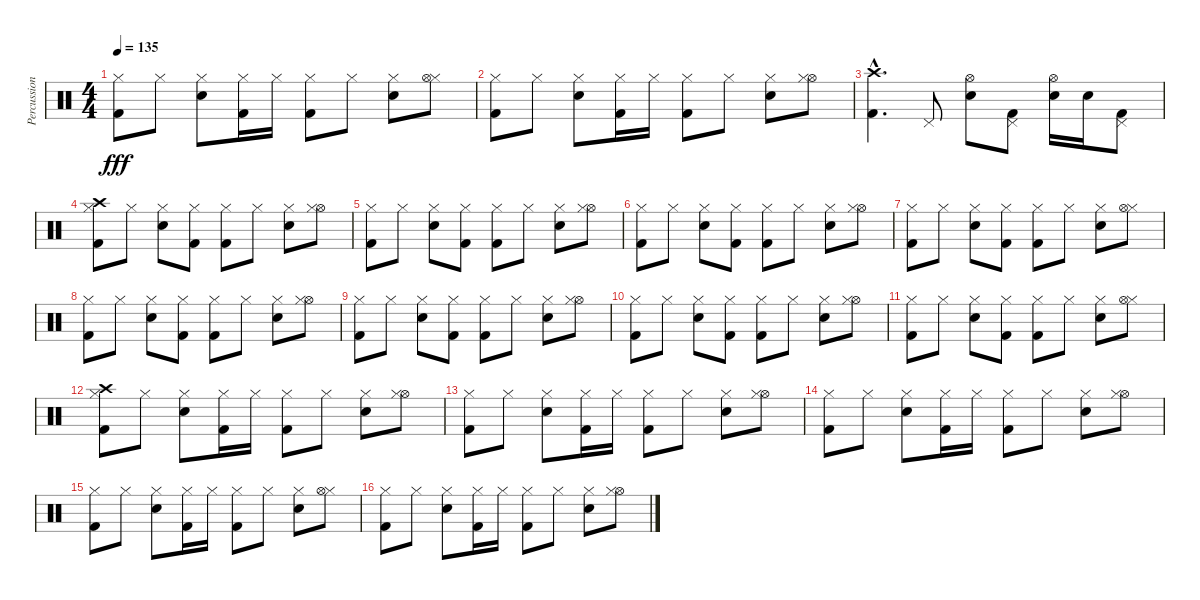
\track ("Percussion" "Percussion") {instrument percussion}
\staff {score}
\articulation defaults
\ts (4 4)
\tempo 135
\clef neutral
\ks c
("Hi-Hat (closed)" "Kick (hit) 2").8{dy fff} "Hi-Hat (closed)".8 ("Hi-Hat (closed)" "Snare (hit) 2").8 ("Kick (hit) 2" "Hi-Hat (closed)").16 "Hi-Hat (closed)".16 ("Hi-Hat (closed)" "Kick (hit) 2").8 "Hi-Hat (closed)".8 ("Snare (hit) 2" "Hi-Hat (closed)").8 ("Hi-Hat (closed)" "Hi-Hat (open)").8 |
("Hi-Hat (closed)" "Kick (hit) 2").8 "Hi-Hat (closed)".8 ("Hi-Hat (closed)" "Snare (hit) 2").8 ("Hi-Hat (closed)" "Kick (hit) 2").16 "Hi-Hat (closed)".16 ("Hi-Hat (closed)" "Kick (hit) 2").8 "Hi-Hat (closed)".8 ("Snare (hit) 2" "Hi-Hat (closed)").8 ("Hi-Hat (open)" "Hi-Hat (closed)").8 |
("Crash high (hit)"{hac} "Kick (hit) 2"{hac}).4{d} "Pedal Hi-Hat (hit)".8 ("Snare (hit) 2" "Hi-Hat (open)").8 ("Kick (hit) 2" "Pedal Hi-Hat (hit)").8 ("Hi-Hat (open)" "Snare (hit) 2").16 "Snare (hit) 2".16 ("Kick (hit) 2" "Pedal Hi-Hat (hit)").8 |
("Crash high (hit)" "Hi-Hat (closed)" "Kick (hit) 2").8 "Hi-Hat (closed)".8 ("Hi-Hat (closed)" "Snare (hit) 2").8 ("Hi-Hat (closed)" "Kick (hit) 2").8 ("Hi-Hat (closed)" "Kick (hit) 2").8 "Hi-Hat (closed)".8 ("Snare (hit) 2" "Hi-Hat (closed)").8 ("Hi-Hat (open)" "Hi-Hat (closed)").8 |
("Hi-Hat (closed)" "Kick (hit) 2").8 "Hi-Hat (closed)".8 ("Hi-Hat (closed)" "Snare (hit) 2").8 ("Kick (hit) 2" "Hi-Hat (closed)").8 ("Hi-Hat (closed)" "Kick (hit) 2").8 "Hi-Hat (closed)".8 ("Hi-Hat (closed)" "Snare (hit) 2").8 ("Hi-Hat (open)" "Hi-Hat (closed)").8 |
("Hi-Hat (closed)" "Kick (hit) 2").8 "Hi-Hat (closed)".8 ("Snare (hit) 2" "Hi-Hat (closed)").8 ("Hi-Hat (closed)" "Kick (hit) 2").8 ("Hi-Hat (closed)" "Kick (hit) 2").8 "Hi-Hat (closed)".8 ("Hi-Hat (closed)" "Snare (hit) 2").8 ("Hi-Hat (open)" "Hi-Hat (closed)").8 |
("Hi-Hat (closed)" "Kick (hit) 2").8 "Hi-Hat (closed)".8 ("Hi-Hat (closed)" "Snare (hit) 2").8 ("Kick (hit) 2" "Hi-Hat (closed)").8 ("Hi-Hat (closed)" "Kick (hit) 2").8 "Hi-Hat (closed)".8 ("Snare (hit) 2" "Hi-Hat (closed)").8 ("Hi-Hat (closed)" "Hi-Hat (open)").8 |
("Hi-Hat (closed)" "Kick (hit) 2").8 "Hi-Hat (closed)".8 ("Hi-Hat (closed)" "Snare (hit) 2").8 ("Hi-Hat (closed)" "Kick (hit) 2").8 ("Hi-Hat (closed)" "Kick (hit) 2").8 "Hi-Hat (closed)".8 ("Snare (hit) 2" "Hi-Hat (closed)").8 ("Hi-Hat (open)" "Hi-Hat (closed)").8 |
("Hi-Hat (closed)" "Kick (hit) 2").8 "Hi-Hat (closed)".8 ("Hi-Hat (closed)" "Snare (hit) 2").8 ("Kick (hit) 2" "Hi-Hat (closed)").8 ("Hi-Hat (closed)" "Kick (hit) 2").8 "Hi-Hat (closed)".8 ("Hi-Hat (closed)" "Snare (hit) 2").8 ("Hi-Hat (open)" "Hi-Hat (closed)").8 |
("Hi-Hat (closed)" "Kick (hit) 2").8 "Hi-Hat (closed)".8 ("Snare (hit) 2" "Hi-Hat (closed)").8 ("Hi-Hat (closed)" "Kick (hit) 2").8 ("Hi-Hat (closed)" "Kick (hit) 2").8 "Hi-Hat (closed)".8 ("Hi-Hat (closed)" "Snare (hit) 2").8 ("Hi-Hat (open)" "Hi-Hat (closed)").8 |
("Hi-Hat (closed)" "Kick (hit) 2").8 "Hi-Hat (closed)".8 ("Hi-Hat (closed)" "Snare (hit) 2").8 ("Kick (hit) 2" "Hi-Hat (closed)").8 ("Hi-Hat (closed)" "Kick (hit) 2").8 "Hi-Hat (closed)".8 ("Snare (hit) 2" "Hi-Hat (closed)").8 ("Hi-Hat (closed)" "Hi-Hat (open)").8 |
("Crash high (hit)" "Hi-Hat (closed)" "Kick (hit) 2").8 "Hi-Hat (closed)".8 ("Hi-Hat (closed)" "Snare (hit) 2").8 ("Hi-Hat (closed)" "Kick (hit) 2").16 "Hi-Hat (closed)".16 ("Hi-Hat (closed)" "Kick (hit) 2").8 "Hi-Hat (closed)".8 ("Snare (hit) 2" "Hi-Hat (closed)").8 ("Hi-Hat (open)" "Hi-Hat (closed)").8 |
("Hi-Hat (closed)" "Kick (hit) 2").8 "Hi-Hat (closed)".8 ("Hi-Hat (closed)" "Snare (hit) 2").8 ("Kick (hit) 2" "Hi-Hat (closed)").16 "Hi-Hat (closed)".16 ("Hi-Hat (closed)" "Kick (hit) 2").8 "Hi-Hat (closed)".8 ("Hi-Hat (closed)" "Snare (hit) 2").8 ("Hi-Hat (open)" "Hi-Hat (closed)").8 |
("Hi-Hat (closed)" "Kick (hit) 2").8 "Hi-Hat (closed)".8 ("Snare (hit) 2" "Hi-Hat (closed)").8 ("Hi-Hat (closed)" "Kick (hit) 2").16 "Hi-Hat (closed)".16 ("Hi-Hat (closed)" "Kick (hit) 2").8 "Hi-Hat (closed)".8 ("Hi-Hat (closed)" "Snare (hit) 2").8 ("Hi-Hat (open)" "Hi-Hat (closed)").8 |
("Hi-Hat (closed)" "Kick (hit) 2").8 "Hi-Hat (closed)".8 ("Hi-Hat (closed)" "Snare (hit) 2").8 ("Kick (hit) 2" "Hi-Hat (closed)").16 "Hi-Hat (closed)".16 ("Hi-Hat (closed)" "Kick (hit) 2").8 "Hi-Hat (closed)".8 ("Snare (hit) 2" "Hi-Hat (closed)").8 ("Hi-Hat (closed)" "Hi-Hat (open)").8 |
("Hi-Hat (closed)" "Kick (hit) 2").8 "Hi-Hat (closed)".8 ("Hi-Hat (closed)" "Snare (hit) 2").8 ("Hi-Hat (closed)" "Kick (hit) 2").16 "Hi-Hat (closed)".16 ("Hi-Hat (closed)" "Kick (hit) 2").8 "Hi-Hat (closed)".8 ("Snare (hit) 2" "Hi-Hat (closed)").8 ("Hi-Hat (open)" "Hi-Hat (closed)").8
